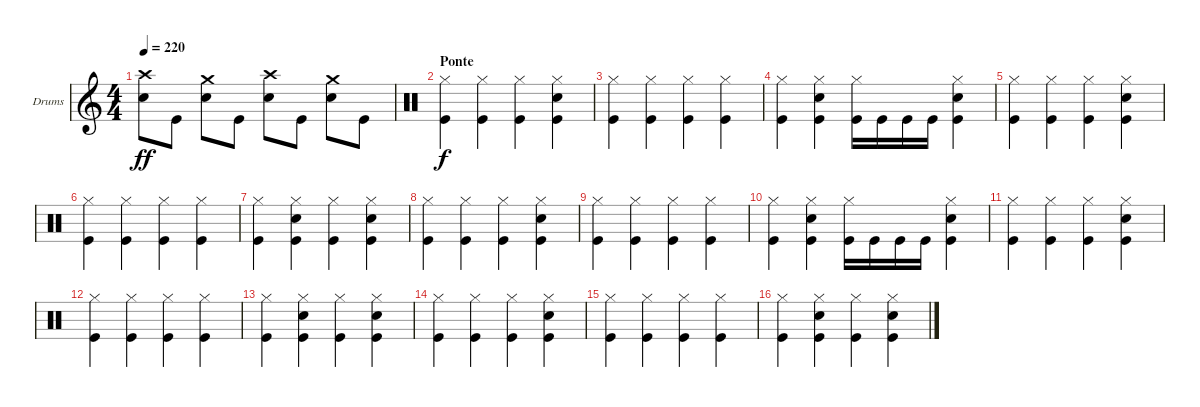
\defaultSystemsLayout 4
\bracketExtendMode groupsimilarinstruments
\firstSystemTrackNameOrientation horizontal
\otherSystemsTrackNameOrientation horizontal
\track ("Drumkit" "Drums") {instrument percussion}
\staff {score}
\articulation defaults
\ts (4 4)
\tempo 220
\clef g2
\ks c
("Snare (hit) 2" "Crash high (hit)").8{dy ff} "Kick (hit)".8 ("Snare (hit) 2" "Crash medium (hit)").8 "Kick (hit)".8 ("Snare (hit) 2" "Crash high (hit)").8 "Kick (hit)".8 ("Crash medium (hit)" "Snare (hit) 2").8 "Kick (hit)".8 |
\section ("" "Ponte")
\clef neutral
("Hi-Hat (closed)" "Kick (hit)").4{dy f} ("Hi-Hat (closed)" "Kick (hit)").4 ("Hi-Hat (closed)" "Kick (hit)").4 ("Hi-Hat (closed)" "Snare (hit) 2" "Kick (hit)").4 |
("Hi-Hat (closed)" "Kick (hit)").4 ("Hi-Hat (closed)" "Kick (hit)").4 ("Hi-Hat (closed)" "Kick (hit)").4 ("Hi-Hat (closed)" "Kick (hit)").4 |
("Hi-Hat (closed)" "Kick (hit)").4 ("Hi-Hat (closed)" "Snare (hit) 2" "Kick (hit)").4 ("Hi-Hat (closed)" "Kick (hit)").16 "Kick (hit)".16 "Kick (hit)".16 "Kick (hit)".16 ("Hi-Hat (closed)" "Snare (hit) 2" "Kick (hit)").4 |
("Hi-Hat (closed)" "Kick (hit)").4 ("Hi-Hat (closed)" "Kick (hit)").4 ("Hi-Hat (closed)" "Kick (hit)").4 ("Hi-Hat (closed)" "Snare (hit) 2" "Kick (hit)").4 |
("Hi-Hat (closed)" "Kick (hit)").4 ("Hi-Hat (closed)" "Kick (hit)").4 ("Hi-Hat (closed)" "Kick (hit)").4 ("Hi-Hat (closed)" "Kick (hit)").4 |
("Hi-Hat (closed)" "Kick (hit)").4 ("Hi-Hat (closed)" "Snare (hit) 2" "Kick (hit)").4 ("Hi-Hat (closed)" "Kick (hit)").4 ("Hi-Hat (closed)" "Snare (hit) 2" "Kick (hit)").4 |
("Hi-Hat (closed)" "Kick (hit)").4 ("Hi-Hat (closed)" "Kick (hit)").4 ("Hi-Hat (closed)" "Kick (hit)").4 ("Hi-Hat (closed)" "Snare (hit) 2" "Kick (hit)").4 |
("Hi-Hat (closed)" "Kick (hit)").4 ("Hi-Hat (closed)" "Kick (hit)").4 ("Hi-Hat (closed)" "Kick (hit)").4 ("Hi-Hat (closed)" "Kick (hit)").4 |
("Hi-Hat (closed)" "Kick (hit)").4 ("Hi-Hat (closed)" "Snare (hit) 2" "Kick (hit)").4 ("Hi-Hat (closed)" "Kick (hit)").16 "Kick (hit)".16 "Kick (hit)".16 "Kick (hit)".16 ("Hi-Hat (closed)" "Snare (hit) 2" "Kick (hit)").4 |
("Hi-Hat (closed)" "Kick (hit)").4 ("Hi-Hat (closed)" "Kick (hit)").4 ("Hi-Hat (closed)" "Kick (hit)").4 ("Hi-Hat (closed)" "Snare (hit) 2" "Kick (hit)").4 |
("Hi-Hat (closed)" "Kick (hit)").4 ("Hi-Hat (closed)" "Kick (hit)").4 ("Hi-Hat (closed)" "Kick (hit)").4 ("Hi-Hat (closed)" "Kick (hit)").4 |
("Hi-Hat (closed)" "Kick (hit)").4 ("Hi-Hat (closed)" "Snare (hit) 2" "Kick (hit)").4 ("Hi-Hat (closed)" "Kick (hit)").4 ("Hi-Hat (closed)" "Snare (hit) 2" "Kick (hit)").4 |
("Hi-Hat (closed)" "Kick (hit)").4 ("Hi-Hat (closed)" "Kick (hit)").4 ("Hi-Hat (closed)" "Kick (hit)").4 ("Hi-Hat (closed)" "Snare (hit) 2" "Kick (hit)").4 |
("Hi-Hat (closed)" "Kick (hit)").4 ("Hi-Hat (closed)" "Kick (hit)").4 ("Hi-Hat (closed)" "Kick (hit)").4 ("Hi-Hat (closed)" "Kick (hit)").4 |
("Hi-Hat (closed)" "Kick (hit)").4 ("Hi-Hat (closed)" "Snare (hit) 2" "Kick (hit)").4 ("Hi-Hat (closed)" "Kick (hit)").4 ("Hi-Hat (closed)" "Snare (hit) 2" "Kick (hit)").4
